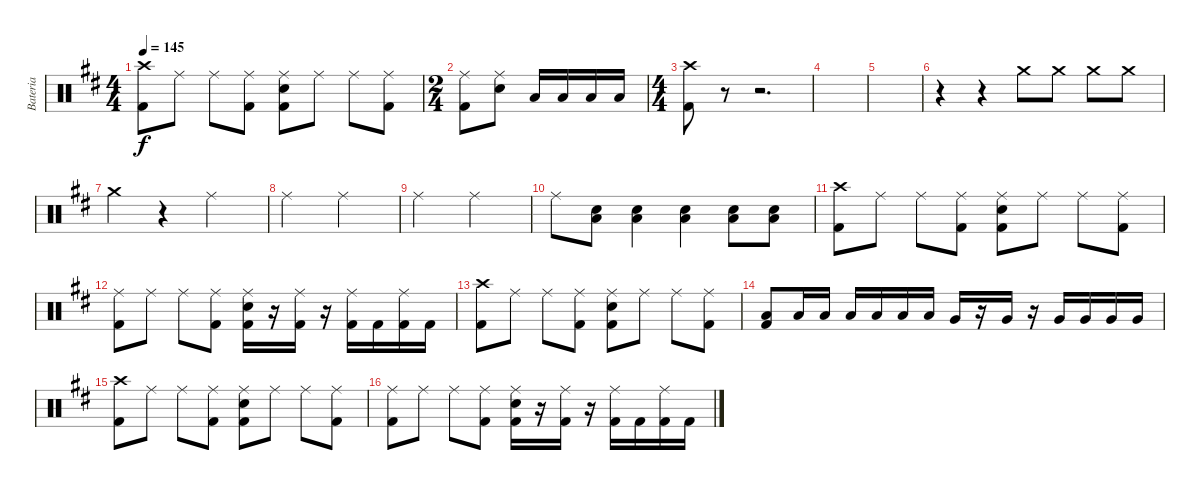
\track ("Bateria" "Bateria") {instrument percussion}
\staff {score}
\articulation defaults
\ts (4 4)
\tempo 145
\clef neutral
\ks d
("Crash high (hit)" "Kick (hit) 2").8{dy f} "Ride (middle)".8 "Ride (middle)".8 ("Ride (middle)" "Kick (hit) 2").8 ("Ride (middle)" "Snare (hit) 2" "Kick (hit) 2").8 "Ride (middle)".8 "Ride (middle)".8 ("Ride (middle)" "Kick (hit) 2").8 |
\ts (2 4)
("Ride (middle)" "Kick (hit) 2").8 ("Ride (middle)" "Snare (hit) 2").8 "Low Tom (hit)".16 "Low Tom (hit)".16 "Low Tom (hit)".16 "Low Tom (hit)".16 |
\ts (4 4)
("Crash high (hit)" "Kick (hit) 2").8 r.8 r.2{d} |
|
|
r.4 r.4{volume 5} "Crash medium (hit)".8{volume 13} "Crash medium (hit)".8 "Crash medium (hit)".8 "Crash medium (hit)".8 |
"Crash medium (hit)".4 r.4 "Ride (middle)".2 |
"Ride (middle)".2 "Ride (middle)".2 |
"Ride (middle)".2 "Ride (middle)".2 |
"Ride (middle)".8 ("Low Tom (hit)" "Snare (hit) 2").8 ("Low Tom (hit)" "Snare (hit) 2").4 ("Low Tom (hit)" "Snare (hit) 2").4 ("Low Tom (hit)" "Snare (hit) 2").8 ("Low Tom (hit)" "Snare (hit) 2").8 |
("Crash high (hit)" "Kick (hit) 2").8 "Ride (middle)".8 "Ride (middle)".8 ("Ride (middle)" "Kick (hit) 2").8 ("Ride (middle)" "Electric Snare (hit)" "Kick (hit) 2").8 "Ride (middle)".8 "Ride (middle)".8 ("Ride (middle)" "Kick (hit) 2").8 |
("Ride (middle)" "Kick (hit) 2").8 "Ride (middle)".8 "Ride (middle)".8 ("Ride (middle)" "Kick (hit) 2").8 ("Ride (middle)" "Electric Snare (hit)" "Kick (hit) 2").16 r.16 ("Ride (middle)" "Kick (hit) 2").16 r.16 ("Ride (middle)" "Kick (hit) 2").16 "Kick (hit) 2".16 ("Ride (middle)" "Kick (hit) 2").16 "Kick (hit) 2".16 |
("Crash high (hit)" "Kick (hit) 2").8 "Ride (middle)".8 "Ride (middle)".8 ("Ride (middle)" "Kick (hit) 2").8 ("Ride (middle)" "Electric Snare (hit)" "Kick (hit) 2").8 "Ride (middle)".8 "Ride (middle)".8 ("Ride (middle)" "Kick (hit) 2").8 |
("Low Tom (hit)" "Kick (hit) 2").8 "Low Tom (hit)".16 "Low Tom (hit)".16 "Low Tom (hit)".16 "Low Tom (hit)".16 "Low Tom (hit)".16 "Low Tom (hit)".16 "Very Low Tom (hit)".16 r.16 "Very Low Tom (hit)".16 r.16 "Very Low Tom (hit)".16 "Very Low Tom (hit)".16 "Very Low Tom (hit)".16 "Very Low Tom (hit)".16 |
("Crash high (hit)" "Kick (hit) 2").8 "Ride (middle)".8 "Ride (middle)".8 ("Ride (middle)" "Kick (hit) 2").8 ("Ride (middle)" "Electric Snare (hit)" "Kick (hit) 2").8 "Ride (middle)".8 "Ride (middle)".8 ("Ride (middle)" "Kick (hit) 2").8 |
("Ride (middle)" "Kick (hit) 2").8 "Ride (middle)".8 "Ride (middle)".8 ("Ride (middle)" "Kick (hit) 2").8 ("Ride (middle)" "Electric Snare (hit)" "Kick (hit) 2").16 r.16 ("Ride (middle)" "Kick (hit) 2").16 r.16 ("Ride (middle)" "Kick (hit) 2").16 "Kick (hit) 2".16 ("Ride (middle)" "Kick (hit) 2").16 "Kick (hit) 2".16
